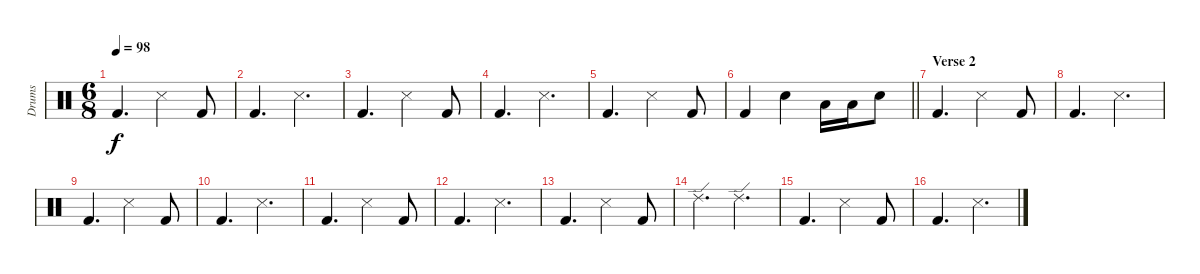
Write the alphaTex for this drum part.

\track ("Drums" "Drums") {instrument percussion}
\staff {score}
\articulation defaults
\ts (6 8)
\tempo 98
\clef neutral
\ks c "Kick (hit) 2".4{d dy f} "Snare (side stick) 3".4 "Kick (hit) 2".8
|
"Kick (hit) 2".4{d} "Snare (side stick) 3".4{d} |
"Kick (hit) 2".4{d} "Snare (side stick) 3".4 "Kick (hit) 2".8 |
"Kick (hit) 2".4{d} "Snare (side stick) 3".4{d} |
"Kick (hit) 2".4{d} "Snare (side stick) 3".4 "Kick (hit) 2".8 |
\barLineRight lightlight "Kick (hit) 2".4 "Snare (hit) 2".4 "Low Tom (hit)".16 "Low Tom (hit)".16 "Snare (hit) 2".8
|
\section ("" "Verse 2")
"Kick (hit) 2".4{d} "Snare (side stick) 3".4 "Kick (hit) 2".8 |
"Kick (hit) 2".4{d} "Snare (side stick) 3".4{d} |
"Kick (hit) 2".4{d} "Snare (side stick) 3".4 "Kick (hit) 2".8 |
"Kick (hit) 2".4{d} "Snare (side stick) 3".4{d} |
"Kick (hit) 2".4{d} "Snare (side stick) 3".4 "Kick (hit) 2".8 |
"Kick (hit) 2".4{d} "Snare (side stick) 3".4{d} |
"Kick (hit) 2".4{d} "Snare (side stick) 3".4 "Kick (hit) 2".8 |
"Ride (edge) 2".4{d} "Ride (edge) 2".4{d} |
"Kick (hit) 2".4{d} "Snare (side stick) 3".4 "Kick (hit) 2".8 |
"Kick (hit) 2".4{d} "Snare (side stick) 3".4{d}
